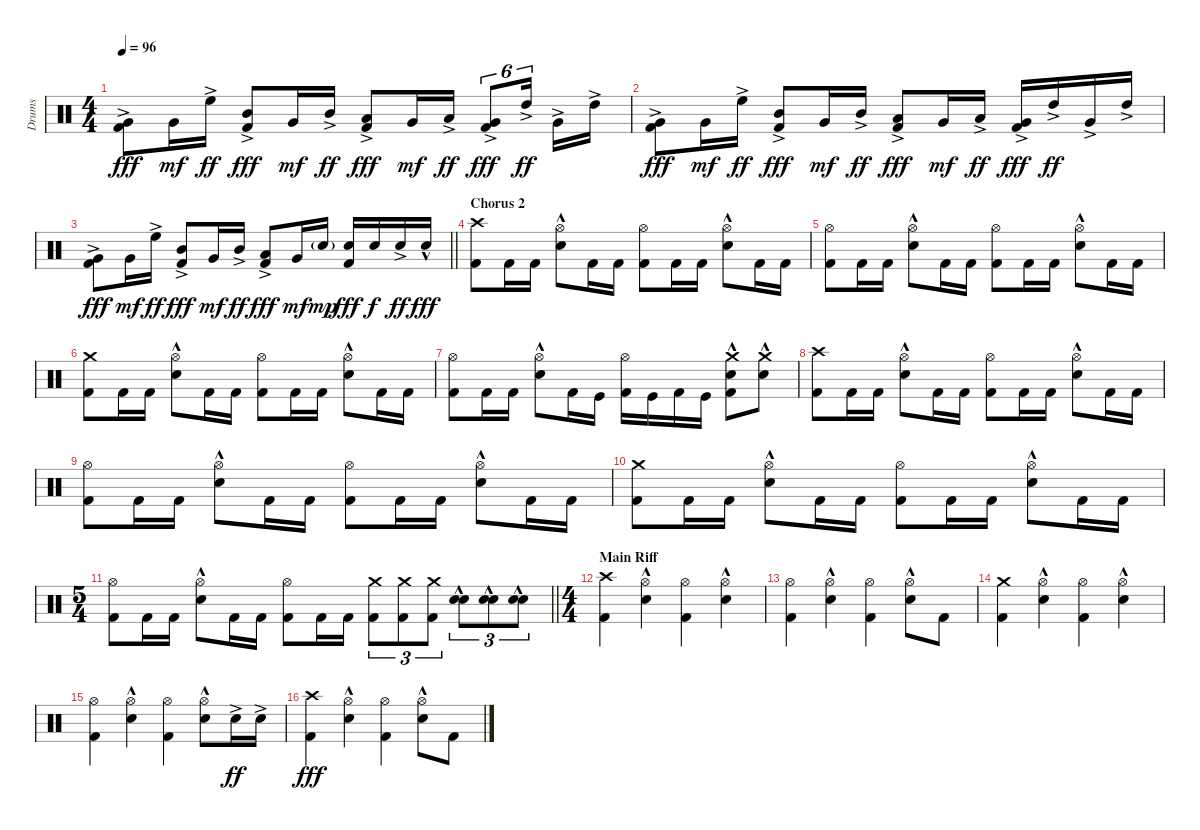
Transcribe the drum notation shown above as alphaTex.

\track ("Drums" "Drums") {instrument percussion}
\staff {score}
\articulation defaults
\ts (4 4)
\tempo 96
\clef neutral
\ks c
("Very Low Tom (hit)"{ac} "Kick (hit) 2").8{dy fff} "Very Low Tom (hit)".16{dy mf} "High Floor Tom (hit)"{ac}.16{dy ff} ("Mid Tom (hit)"{ac} "Kick (hit) 2").8{dy fff} "Very Low Tom (hit)".16{dy mf} "Mid Tom (hit)"{ac}.16{dy ff} ("Low Tom (hit)"{ac} "Kick (hit) 2").8{dy fff} "Very Low Tom (hit)".16{dy mf} "Low Tom (hit)"{ac}.16{dy ff} ("Very Low Tom (hit)"{ac} "Kick (hit) 2").8{tu (6 4) dy fff} "High Tom (hit)"{ac}.16{tu (6 4) dy ff beam splitsecondary} "Very Low Tom (hit)"{ac}.16 "High Tom (hit)"{ac}.16 |
("Very Low Tom (hit)"{ac} "Kick (hit) 2").8{dy fff} "Very Low Tom (hit)".16{dy mf} "High Floor Tom (hit)"{ac}.16{dy ff} ("Mid Tom (hit)"{ac} "Kick (hit) 2").8{dy fff} "Very Low Tom (hit)".16{dy mf} "Mid Tom (hit)"{ac}.16{dy ff} ("Low Tom (hit)"{ac} "Kick (hit) 2").8{dy fff} "Very Low Tom (hit)".16{dy mf} "Low Tom (hit)"{ac}.16{dy ff} ("Very Low Tom (hit)"{ac} "Kick (hit) 2").16{dy fff} "High Tom (hit)"{ac}.16{dy ff} "Very Low Tom (hit)"{ac}.16 "High Tom (hit)"{ac}.16 |
\barLineRight lightlight
("Very Low Tom (hit)"{ac} "Kick (hit) 2").8{dy fff} "Very Low Tom (hit)".16{dy mf} "High Floor Tom (hit)"{ac}.16{dy ff} ("Mid Tom (hit)"{ac} "Kick (hit) 2").8{dy fff} "Very Low Tom (hit)".16{dy mf} "Mid Tom (hit)"{ac}.16{dy ff} ("Low Tom (hit)"{ac} "Kick (hit) 2").8{dy fff} "Very Low Tom (hit)".16{dy mf} "Electric Snare (hit)"{g}.16{dy mp} ("Electric Snare (hit)" "Kick (hit) 2").16{dy fff} "Electric Snare (hit)".16{dy f} "Electric Snare (hit)"{ac}.16{dy ff} "Electric Snare (hit)"{hac}.16{dy fff} |
\section ("" "Chorus 2")
("Crash high (hit)" "Kick (hit) 2").8 "Kick (hit) 2".16 "Kick (hit) 2".16 ("Hi-Hat (open)" "Electric Snare (hit)"{hac}).8 "Kick (hit) 2".16 "Kick (hit) 2".16 ("Hi-Hat (open)" "Kick (hit) 2").8 "Kick (hit) 2".16 "Kick (hit) 2".16 ("Hi-Hat (open)" "Electric Snare (hit)"{hac}).8 "Kick (hit) 2".16 "Kick (hit) 2".16 |
("Hi-Hat (open)" "Kick (hit) 2").8 "Kick (hit) 2".16 "Kick (hit) 2".16 ("Hi-Hat (open)" "Electric Snare (hit)"{hac}).8 "Kick (hit) 2".16 "Kick (hit) 2".16 ("Hi-Hat (open)" "Kick (hit) 2").8 "Kick (hit) 2".16 "Kick (hit) 2".16 ("Hi-Hat (open)" "Electric Snare (hit)"{hac}).8 "Kick (hit) 2".16 "Kick (hit) 2".16 |
("Crash medium (hit)" "Kick (hit) 2").8 "Kick (hit) 2".16 "Kick (hit) 2".16 ("Hi-Hat (open)" "Electric Snare (hit)"{hac}).8 "Kick (hit) 2".16 "Kick (hit) 2".16 ("Hi-Hat (open)" "Kick (hit) 2").8 "Kick (hit) 2".16 "Kick (hit) 2".16 ("Hi-Hat (open)" "Electric Snare (hit)"{hac}).8 "Kick (hit) 2".16 "Kick (hit) 2".16 |
("Hi-Hat (open)" "Kick (hit) 2").8 "Kick (hit) 2".16 "Kick (hit) 2".16 ("Hi-Hat (open)" "Electric Snare (hit)"{hac}).8 "Kick (hit) 2".16 "Kick (hit)".16 ("Hi-Hat (open)" "Kick (hit) 2").16 "Kick (hit)".16 "Kick (hit) 2".16 "Kick (hit)".16 ("Crash medium (hit)" "Electric Snare (hit)"{hac} "Kick (hit) 2").8 ("Crash medium (hit)" "Electric Snare (hit)"{hac}).8 |
("Crash high (hit)" "Kick (hit) 2").8 "Kick (hit) 2".16 "Kick (hit) 2".16 ("Hi-Hat (open)" "Electric Snare (hit)"{hac}).8 "Kick (hit) 2".16 "Kick (hit) 2".16 ("Hi-Hat (open)" "Kick (hit) 2").8 "Kick (hit) 2".16 "Kick (hit) 2".16 ("Hi-Hat (open)" "Electric Snare (hit)"{hac}).8 "Kick (hit) 2".16 "Kick (hit) 2".16 |
("Hi-Hat (open)" "Kick (hit) 2").8 "Kick (hit) 2".16 "Kick (hit) 2".16 ("Hi-Hat (open)" "Electric Snare (hit)"{hac}).8 "Kick (hit) 2".16 "Kick (hit) 2".16 ("Hi-Hat (open)" "Kick (hit) 2").8 "Kick (hit) 2".16 "Kick (hit) 2".16 ("Hi-Hat (open)" "Electric Snare (hit)"{hac}).8 "Kick (hit) 2".16 "Kick (hit) 2".16 |
("Crash medium (hit)" "Kick (hit) 2").8 "Kick (hit) 2".16 "Kick (hit) 2".16 ("Hi-Hat (open)" "Electric Snare (hit)"{hac}).8 "Kick (hit) 2".16 "Kick (hit) 2".16 ("Hi-Hat (open)" "Kick (hit) 2").8 "Kick (hit) 2".16 "Kick (hit) 2".16 ("Hi-Hat (open)" "Electric Snare (hit)"{hac}).8 "Kick (hit) 2".16 "Kick (hit) 2".16 |
\ts (5 4)
\barLineRight lightlight
("Hi-Hat (open)" "Kick (hit) 2").8 "Kick (hit) 2".16 "Kick (hit) 2".16 ("Hi-Hat (open)" "Electric Snare (hit)"{hac}).8 "Kick (hit) 2".16 "Kick (hit) 2".16 ("Hi-Hat (open)" "Kick (hit) 2").8 "Kick (hit) 2".16 "Kick (hit) 2".16 ("Crash medium (hit)" "Kick (hit) 2").8{tu (3 2)} ("Crash medium (hit)" "Kick (hit) 2").8{tu (3 2)} ("Crash medium (hit)" "Kick (hit) 2").8{tu (3 2)} ("Electric Snare (hit)"{hac} "Electric Snare (hit)"{hac}).8{tu (3 2) bd 120} ("Electric Snare (hit)"{hac} "Electric Snare (hit)"{hac}).8{tu (3 2) bd 120} ("Electric Snare (hit)"{hac} "Electric Snare (hit)"{hac}).8{tu (3 2) bd 120} |
\ts (4 4)
\section ("" "Main Riff")
("Crash high (hit)" "Kick (hit) 2").4 ("Hi-Hat (open)" "Electric Snare (hit)"{hac}).4 ("Hi-Hat (open)" "Kick (hit) 2").4 ("Hi-Hat (open)" "Electric Snare (hit)"{hac}).4 |
("Hi-Hat (open)" "Kick (hit) 2").4 ("Hi-Hat (open)" "Electric Snare (hit)"{hac}).4 ("Hi-Hat (open)" "Kick (hit) 2").4 ("Hi-Hat (open)" "Electric Snare (hit)"{hac}).8 "Kick (hit) 2".8 |
("Crash medium (hit)" "Kick (hit) 2").4 ("Hi-Hat (open)" "Electric Snare (hit)"{hac}).4 ("Hi-Hat (open)" "Kick (hit) 2").4 ("Hi-Hat (open)" "Electric Snare (hit)"{hac}).4 |
("Hi-Hat (open)" "Kick (hit) 2").4 ("Hi-Hat (open)" "Electric Snare (hit)"{hac}).4 ("Hi-Hat (open)" "Kick (hit) 2").4 ("Hi-Hat (open)" "Electric Snare (hit)"{hac}).8 "Electric Snare (hit)"{ac}.16{dy ff} "Electric Snare (hit)"{ac}.16 |
("Crash high (hit)" "Kick (hit) 2").4{dy fff} ("Hi-Hat (open)" "Electric Snare (hit)"{hac}).4 ("Hi-Hat (open)" "Kick (hit) 2").4 ("Hi-Hat (open)" "Electric Snare (hit)"{hac}).8 "Kick (hit) 2".8
